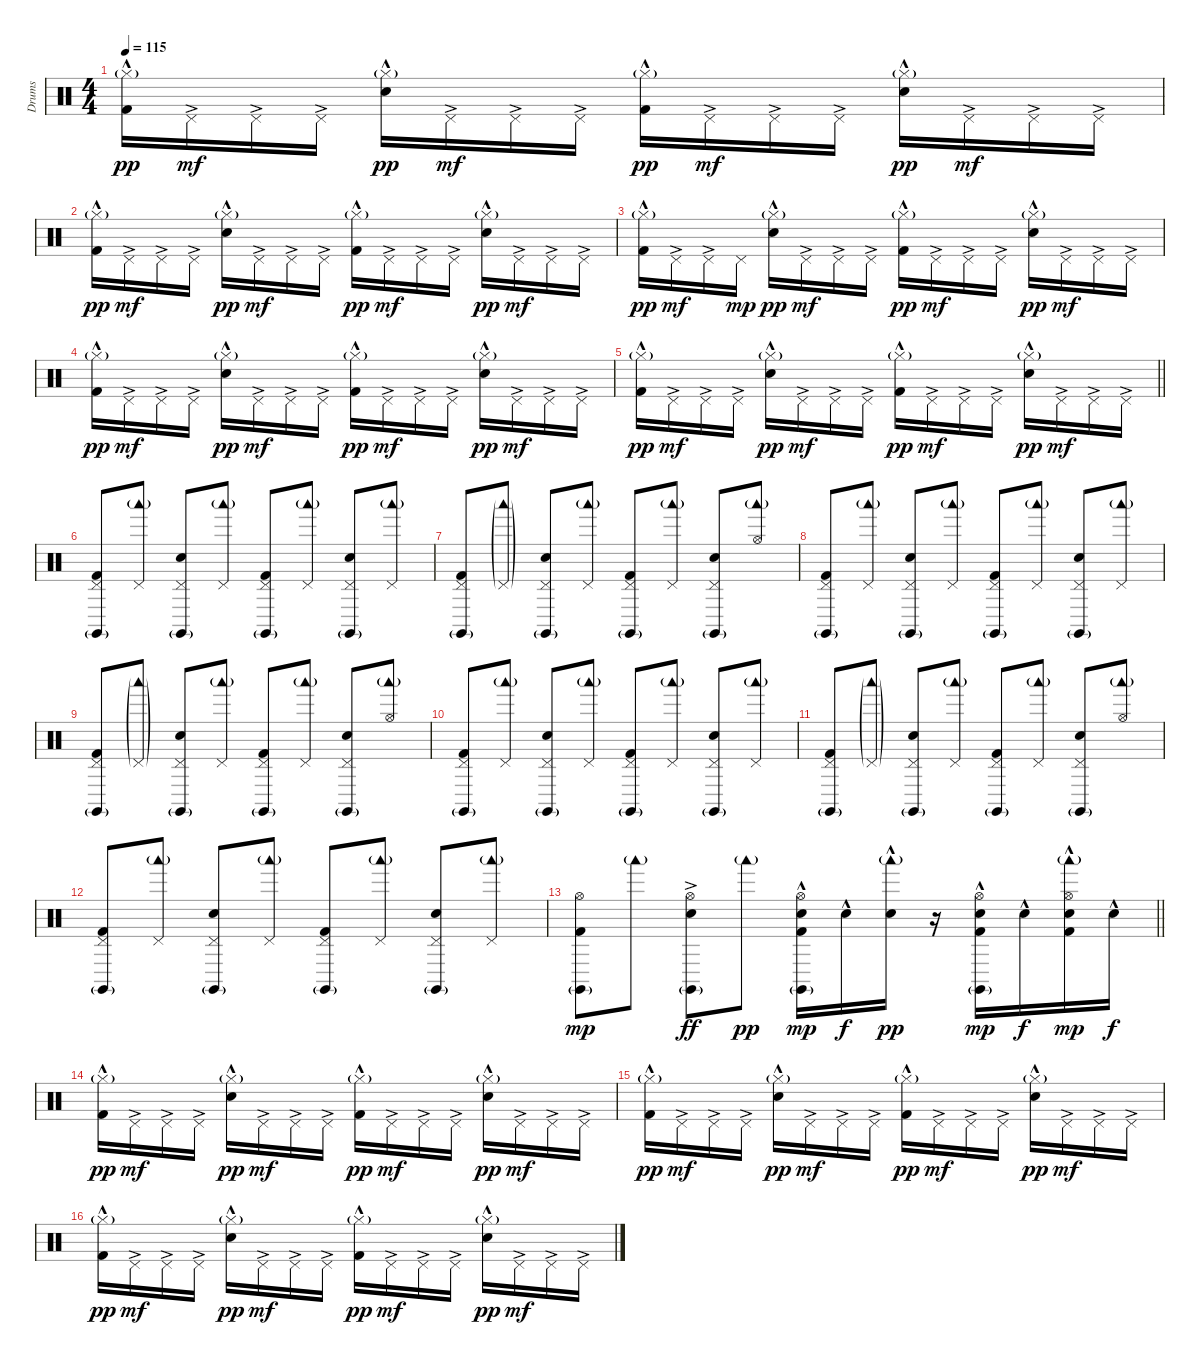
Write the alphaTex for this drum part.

\track ("Drums" "Drums") {instrument percussion}
\staff {score}
\articulation defaults
\ts (4 4)
\tempo 115
\clef neutral
\ks c
("Hi-Hat (closed)"{g} "Kick (hit) 2"{hac}).16{dy pp} "Pedal Hi-Hat (hit)"{ac}.16{dy mf} "Pedal Hi-Hat (hit)"{ac}.16 "Pedal Hi-Hat (hit)"{ac}.16 ("Hi-Hat (closed)"{g} "Electric Snare (hit)"{hac}).16{dy pp} "Pedal Hi-Hat (hit)"{ac}.16{dy mf} "Pedal Hi-Hat (hit)"{ac}.16 "Pedal Hi-Hat (hit)"{ac}.16 ("Hi-Hat (closed)"{g} "Kick (hit) 2"{hac}).16{dy pp} "Pedal Hi-Hat (hit)"{ac}.16{dy mf} "Pedal Hi-Hat (hit)"{ac}.16 "Pedal Hi-Hat (hit)"{ac}.16 ("Hi-Hat (closed)"{g} "Electric Snare (hit)"{hac}).16{dy pp} "Pedal Hi-Hat (hit)"{ac}.16{dy mf} "Pedal Hi-Hat (hit)"{ac}.16 "Pedal Hi-Hat (hit)"{ac}.16 |
("Hi-Hat (closed)"{g} "Kick (hit) 2"{hac}).16{dy pp} "Pedal Hi-Hat (hit)"{ac}.16{dy mf} "Pedal Hi-Hat (hit)"{ac}.16 "Pedal Hi-Hat (hit)"{ac}.16 ("Hi-Hat (closed)"{g} "Electric Snare (hit)"{hac}).16{dy pp} "Pedal Hi-Hat (hit)"{ac}.16{dy mf} "Pedal Hi-Hat (hit)"{ac}.16 "Pedal Hi-Hat (hit)"{ac}.16 ("Hi-Hat (closed)"{g} "Kick (hit) 2"{hac}).16{dy pp} "Pedal Hi-Hat (hit)"{ac}.16{dy mf} "Pedal Hi-Hat (hit)"{ac}.16 "Pedal Hi-Hat (hit)"{ac}.16 ("Hi-Hat (closed)"{g} "Electric Snare (hit)"{hac}).16{dy pp} "Pedal Hi-Hat (hit)"{ac}.16{dy mf} "Pedal Hi-Hat (hit)"{ac}.16 "Pedal Hi-Hat (hit)"{ac}.16 |
("Hi-Hat (closed)"{g} "Kick (hit) 2"{hac}).16{dy pp} "Pedal Hi-Hat (hit)"{ac}.16{dy mf} "Pedal Hi-Hat (hit)"{ac}.16 "Pedal Hi-Hat (hit)".16{dy mp} ("Hi-Hat (closed)"{g} "Electric Snare (hit)"{hac}).16{dy pp} "Pedal Hi-Hat (hit)"{ac}.16{dy mf} "Pedal Hi-Hat (hit)"{ac}.16 "Pedal Hi-Hat (hit)"{ac}.16 ("Hi-Hat (closed)"{g} "Kick (hit) 2"{hac}).16{dy pp} "Pedal Hi-Hat (hit)"{ac}.16{dy mf} "Pedal Hi-Hat (hit)"{ac}.16 "Pedal Hi-Hat (hit)"{ac}.16 ("Hi-Hat (closed)"{g} "Electric Snare (hit)"{hac}).16{dy pp} "Pedal Hi-Hat (hit)"{ac}.16{dy mf} "Pedal Hi-Hat (hit)"{ac}.16 "Pedal Hi-Hat (hit)"{ac}.16 |
("Hi-Hat (closed)"{g} "Kick (hit) 2"{hac}).16{dy pp} "Pedal Hi-Hat (hit)"{ac}.16{dy mf} "Pedal Hi-Hat (hit)"{ac}.16 "Pedal Hi-Hat (hit)"{ac}.16 ("Hi-Hat (closed)"{g} "Electric Snare (hit)"{hac}).16{dy pp} "Pedal Hi-Hat (hit)"{ac}.16{dy mf} "Pedal Hi-Hat (hit)"{ac}.16 "Pedal Hi-Hat (hit)"{ac}.16 ("Hi-Hat (closed)"{g} "Kick (hit) 2"{hac}).16{dy pp} "Pedal Hi-Hat (hit)"{ac}.16{dy mf} "Pedal Hi-Hat (hit)"{ac}.16 "Pedal Hi-Hat (hit)"{ac}.16 ("Hi-Hat (closed)"{g} "Electric Snare (hit)"{hac}).16{dy pp} "Pedal Hi-Hat (hit)"{ac}.16{dy mf} "Pedal Hi-Hat (hit)"{ac}.16 "Pedal Hi-Hat (hit)"{ac}.16 |
\barLineRight lightlight
("Hi-Hat (closed)"{g} "Kick (hit) 2"{hac}).16{dy pp} "Pedal Hi-Hat (hit)"{ac}.16{dy mf} "Pedal Hi-Hat (hit)"{ac}.16 "Pedal Hi-Hat (hit)"{ac}.16 ("Hi-Hat (closed)"{g} "Electric Snare (hit)"{hac}).16{dy pp} "Pedal Hi-Hat (hit)"{ac}.16{dy mf} "Pedal Hi-Hat (hit)"{ac}.16 "Pedal Hi-Hat (hit)"{ac}.16 ("Hi-Hat (closed)"{g} "Kick (hit) 2"{hac}).16{dy pp} "Pedal Hi-Hat (hit)"{ac}.16{dy mf} "Pedal Hi-Hat (hit)"{ac}.16 "Pedal Hi-Hat (hit)"{ac}.16 ("Hi-Hat (closed)"{g} "Electric Snare (hit)"{hac}).16{dy pp} "Pedal Hi-Hat (hit)"{ac}.16{dy mf} "Pedal Hi-Hat (hit)"{ac}.16 "Pedal Hi-Hat (hit)"{ac}.16 |
("Claves (hit)"{g} "Pedal Hi-Hat (hit)" "Kick (hit) 2").8 ("Woodblock low (hit)"{g} "Pedal Hi-Hat (hit)").8 ("Claves (hit)"{g} "Pedal Hi-Hat (hit)" "Electric Snare (hit)").8 ("Woodblock low (hit)"{g} "Pedal Hi-Hat (hit)").8 ("Claves (hit)"{g} "Pedal Hi-Hat (hit)" "Kick (hit) 2").8 ("Woodblock low (hit)"{g} "Pedal Hi-Hat (hit)").8 ("Claves (hit)"{g} "Pedal Hi-Hat (hit)" "Electric Snare (hit)").8 ("Woodblock low (hit)"{g} "Pedal Hi-Hat (hit)").8 |
("Claves (hit)"{g} "Pedal Hi-Hat (hit)" "Kick (hit) 2").8 ("Woodblock low (hit)"{g} "Pedal Hi-Hat (hit)"{g}).8 ("Claves (hit)"{g} "Pedal Hi-Hat (hit)" "Electric Snare (hit)").8 ("Woodblock low (hit)"{g} "Pedal Hi-Hat (hit)").8 ("Claves (hit)"{g} "Pedal Hi-Hat (hit)" "Kick (hit) 2").8 ("Woodblock low (hit)"{g} "Pedal Hi-Hat (hit)").8 ("Claves (hit)"{g} "Pedal Hi-Hat (hit)" "Electric Snare (hit)").8 ("Woodblock low (hit)"{g} "Hi-Hat (open)").8 |
("Claves (hit)"{g} "Pedal Hi-Hat (hit)" "Kick (hit) 2").8 ("Woodblock low (hit)"{g} "Pedal Hi-Hat (hit)").8 ("Claves (hit)"{g} "Pedal Hi-Hat (hit)" "Electric Snare (hit)").8 ("Woodblock low (hit)"{g} "Pedal Hi-Hat (hit)").8 ("Claves (hit)"{g} "Pedal Hi-Hat (hit)" "Kick (hit) 2").8 ("Woodblock low (hit)"{g} "Pedal Hi-Hat (hit)").8 ("Claves (hit)"{g} "Pedal Hi-Hat (hit)" "Electric Snare (hit)").8 ("Woodblock low (hit)"{g} "Pedal Hi-Hat (hit)").8 |
("Claves (hit)"{g} "Pedal Hi-Hat (hit)" "Kick (hit) 2").8 ("Woodblock low (hit)"{g} "Pedal Hi-Hat (hit)"{g}).8 ("Claves (hit)"{g} "Pedal Hi-Hat (hit)" "Electric Snare (hit)").8 ("Woodblock low (hit)"{g} "Pedal Hi-Hat (hit)").8 ("Claves (hit)"{g} "Pedal Hi-Hat (hit)" "Kick (hit) 2").8 ("Woodblock low (hit)"{g} "Pedal Hi-Hat (hit)").8 ("Claves (hit)"{g} "Pedal Hi-Hat (hit)" "Electric Snare (hit)").8 ("Woodblock low (hit)"{g} "Hi-Hat (open)").8 |
("Claves (hit)"{g} "Pedal Hi-Hat (hit)" "Kick (hit) 2").8 ("Woodblock low (hit)"{g} "Pedal Hi-Hat (hit)").8 ("Claves (hit)"{g} "Pedal Hi-Hat (hit)" "Electric Snare (hit)").8 ("Woodblock low (hit)"{g} "Pedal Hi-Hat (hit)").8 ("Claves (hit)"{g} "Pedal Hi-Hat (hit)" "Kick (hit) 2").8 ("Woodblock low (hit)"{g} "Pedal Hi-Hat (hit)").8 ("Claves (hit)"{g} "Pedal Hi-Hat (hit)" "Electric Snare (hit)").8 ("Woodblock low (hit)"{g} "Pedal Hi-Hat (hit)").8 |
("Claves (hit)"{g} "Pedal Hi-Hat (hit)" "Kick (hit) 2").8 ("Woodblock low (hit)"{g} "Pedal Hi-Hat (hit)"{g}).8 ("Claves (hit)"{g} "Pedal Hi-Hat (hit)" "Electric Snare (hit)").8 ("Woodblock low (hit)"{g} "Pedal Hi-Hat (hit)").8 ("Claves (hit)"{g} "Pedal Hi-Hat (hit)" "Kick (hit) 2").8 ("Woodblock low (hit)"{g} "Pedal Hi-Hat (hit)").8 ("Claves (hit)"{g} "Pedal Hi-Hat (hit)" "Electric Snare (hit)").8 ("Woodblock low (hit)"{g} "Hi-Hat (open)").8 |
("Claves (hit)"{g} "Pedal Hi-Hat (hit)" "Kick (hit) 2").8 ("Woodblock low (hit)"{g} "Pedal Hi-Hat (hit)").8 ("Claves (hit)"{g} "Pedal Hi-Hat (hit)" "Electric Snare (hit)").8 ("Woodblock low (hit)"{g} "Pedal Hi-Hat (hit)").8 ("Claves (hit)"{g} "Pedal Hi-Hat (hit)" "Kick (hit) 2").8 ("Woodblock low (hit)"{g} "Pedal Hi-Hat (hit)").8 ("Claves (hit)"{g} "Pedal Hi-Hat (hit)" "Electric Snare (hit)").8 ("Woodblock low (hit)"{g} "Pedal Hi-Hat (hit)").8 |
\barLineRight lightlight
("Claves (hit)"{g} "Hi-Hat (open)" "Kick (hit) 2").8{dy mp} "Woodblock low (hit)"{g}.8 ("Claves (hit)"{g} "Hi-Hat (open)" "Electric Snare (hit)"{ac}).8{dy ff} "Woodblock low (hit)"{g}.8{dy pp} ("Claves (hit)"{g} "Hi-Hat (open)" "Electric Snare (hit)"{hac} "Kick (hit) 2").16{dy mp} "Electric Snare (hit)"{hac}.16{dy f} ("Woodblock low (hit)"{g} "Electric Snare (hit)"{hac}).16{dy pp} r.16 ("Claves (hit)"{g} "Hi-Hat (open)" "Electric Snare (hit)"{hac} "Kick (hit) 2").16{dy mp} "Electric Snare (hit)"{hac}.16{dy f} ("Woodblock low (hit)"{g} "Hi-Hat (open)" "Electric Snare (hit)"{hac} "Kick (hit) 2").16{dy mp} "Electric Snare (hit)"{hac}.16{dy f} |
("Hi-Hat (closed)"{g} "Kick (hit) 2"{hac}).16{dy pp} "Pedal Hi-Hat (hit)"{ac}.16{dy mf} "Pedal Hi-Hat (hit)"{ac}.16 "Pedal Hi-Hat (hit)"{ac}.16 ("Hi-Hat (closed)"{g} "Electric Snare (hit)"{hac}).16{dy pp} "Pedal Hi-Hat (hit)"{ac}.16{dy mf} "Pedal Hi-Hat (hit)"{ac}.16 "Pedal Hi-Hat (hit)"{ac}.16 ("Hi-Hat (closed)"{g} "Kick (hit) 2"{hac}).16{dy pp} "Pedal Hi-Hat (hit)"{ac}.16{dy mf} "Pedal Hi-Hat (hit)"{ac}.16 "Pedal Hi-Hat (hit)"{ac}.16 ("Hi-Hat (closed)"{g} "Electric Snare (hit)"{hac}).16{dy pp} "Pedal Hi-Hat (hit)"{ac}.16{dy mf} "Pedal Hi-Hat (hit)"{ac}.16 "Pedal Hi-Hat (hit)"{ac}.16 |
("Hi-Hat (closed)"{g} "Kick (hit) 2"{hac}).16{dy pp} "Pedal Hi-Hat (hit)"{ac}.16{dy mf} "Pedal Hi-Hat (hit)"{ac}.16 "Pedal Hi-Hat (hit)"{ac}.16 ("Hi-Hat (closed)"{g} "Electric Snare (hit)"{hac}).16{dy pp} "Pedal Hi-Hat (hit)"{ac}.16{dy mf} "Pedal Hi-Hat (hit)"{ac}.16 "Pedal Hi-Hat (hit)"{ac}.16 ("Hi-Hat (closed)"{g} "Kick (hit) 2"{hac}).16{dy pp} "Pedal Hi-Hat (hit)"{ac}.16{dy mf} "Pedal Hi-Hat (hit)"{ac}.16 "Pedal Hi-Hat (hit)"{ac}.16 ("Hi-Hat (closed)"{g} "Electric Snare (hit)"{hac}).16{dy pp} "Pedal Hi-Hat (hit)"{ac}.16{dy mf} "Pedal Hi-Hat (hit)"{ac}.16 "Pedal Hi-Hat (hit)"{ac}.16 |
("Hi-Hat (closed)"{g} "Kick (hit) 2"{hac}).16{dy pp} "Pedal Hi-Hat (hit)"{ac}.16{dy mf} "Pedal Hi-Hat (hit)"{ac}.16 "Pedal Hi-Hat (hit)"{ac}.16 ("Hi-Hat (closed)"{g} "Electric Snare (hit)"{hac}).16{dy pp} "Pedal Hi-Hat (hit)"{ac}.16{dy mf} "Pedal Hi-Hat (hit)"{ac}.16 "Pedal Hi-Hat (hit)"{ac}.16 ("Hi-Hat (closed)"{g} "Kick (hit) 2"{hac}).16{dy pp} "Pedal Hi-Hat (hit)"{ac}.16{dy mf} "Pedal Hi-Hat (hit)"{ac}.16 "Pedal Hi-Hat (hit)"{ac}.16 ("Hi-Hat (closed)"{g} "Electric Snare (hit)"{hac}).16{dy pp} "Pedal Hi-Hat (hit)"{ac}.16{dy mf} "Pedal Hi-Hat (hit)"{ac}.16 "Pedal Hi-Hat (hit)"{ac}.16
